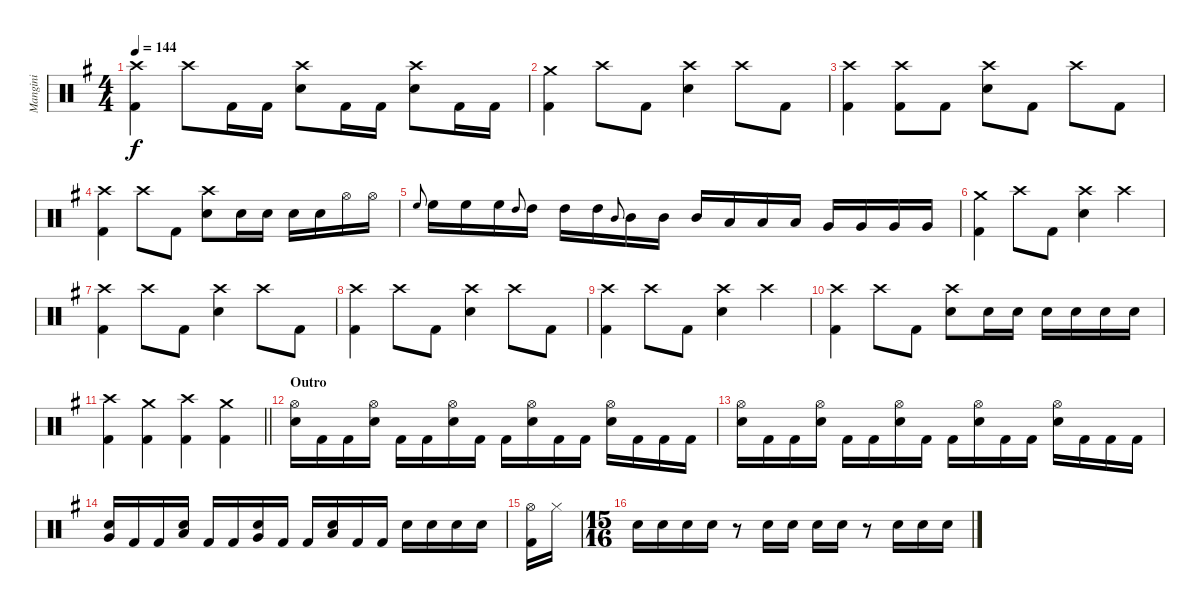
\track ("Mangini" "Mangini") {instrument percussion}
\staff {score}
\articulation defaults
\ts (4 4)
\tempo 144
\clef neutral
\ks eminor
("Crash high (hit)" "Kick (hit) 2").4{dy f} "Crash high (hit)".8 "Kick (hit) 2".16 "Kick (hit) 2".16 ("Crash high (hit)" "Snare (hit) 2").8 "Kick (hit) 2".16 "Kick (hit) 2".16 ("Crash high (hit)" "Snare (hit) 2").8 "Kick (hit) 2".16 "Kick (hit) 2".16 |
("Crash medium (hit)" "Kick (hit) 2").4 "Crash high (hit)".8 "Kick (hit) 2".8 ("Crash high (hit)" "Snare (hit) 2").4 "Crash high (hit)".8 "Kick (hit) 2".8 |
("Crash high (hit)" "Kick (hit) 2").4 ("Crash high (hit)" "Kick (hit) 2").8 "Kick (hit) 2".8 ("Crash high (hit)" "Snare (hit) 2").8 "Kick (hit) 2".8 "Crash high (hit)".8 "Kick (hit) 2".8 |
("Crash high (hit)" "Kick (hit) 2").4 "Crash high (hit)".8 "Kick (hit) 2".8 ("Crash high (hit)" "Snare (hit) 2").8 "Snare (hit) 2".16 "Snare (hit) 2".16 "Snare (hit) 2".16 "Snare (hit) 2".16 "Hi-Hat (open)".16 "Hi-Hat (open)".16 |
"High Floor Tom (hit)".8{gr onbeat} "High Floor Tom (hit)".16 "High Floor Tom (hit)".16 "High Floor Tom (hit)".16 "High Tom (hit)".8{gr onbeat} "High Tom (hit)".16 "High Tom (hit)".16 "High Tom (hit)".16 "Mid Tom (hit)".8{gr onbeat} "Mid Tom (hit)".16 "Mid Tom (hit)".16 "Mid Tom (hit)".16 "Low Tom (hit)".16 "Low Tom (hit)".16 "Low Tom (hit)".16 "Very Low Tom (hit)".16 "Very Low Tom (hit)".16 "Very Low Tom (hit)".16 "Very Low Tom (hit)".16 |
("Crash medium (hit)" "Kick (hit) 2").4 "Crash high (hit)".8 "Kick (hit) 2".8 ("Crash high (hit)" "Snare (hit) 2").4 "Crash high (hit)".4 |
("Crash high (hit)" "Kick (hit) 2").4 "Crash high (hit)".8 "Kick (hit) 2".8 ("Crash high (hit)" "Snare (hit) 2").4 "Crash high (hit)".8 "Kick (hit) 2".8 |
("Crash high (hit)" "Kick (hit) 2").4 "Crash high (hit)".8 "Kick (hit) 2".8 ("Crash high (hit)" "Snare (hit) 2").4 "Crash high (hit)".8 "Kick (hit) 2".8 |
("Crash high (hit)" "Kick (hit) 2").4 "Crash high (hit)".8 "Kick (hit) 2".8 ("Crash high (hit)" "Snare (hit) 2").4 "Crash high (hit)".4 |
("Crash high (hit)" "Kick (hit) 2").4 "Crash high (hit)".8 "Kick (hit) 2".8 ("Crash high (hit)" "Snare (hit) 2").8 "Snare (hit) 2".16 "Snare (hit) 2".16 "Snare (hit) 2".16 "Snare (hit) 2".16 "Snare (hit) 2".16 "Snare (hit) 2".16 |
\barLineRight lightlight
("Crash high (hit)" "Kick (hit) 2").4 ("Crash medium (hit)" "Kick (hit) 2").4 ("Crash high (hit)" "Kick (hit) 2").4 ("Crash medium (hit)" "Kick (hit) 2").4 |
\section ("" "Outro")
("Hi-Hat (open)" "Snare (hit) 2").16 "Kick (hit) 2".16 "Kick (hit) 2".16 ("Hi-Hat (open)" "Snare (hit) 2").16 "Kick (hit) 2".16 "Kick (hit) 2".16 ("Hi-Hat (open)" "Snare (hit) 2").16 "Kick (hit) 2".16 "Kick (hit) 2".16 ("Hi-Hat (open)" "Snare (hit) 2").16 "Kick (hit) 2".16 "Kick (hit) 2".16 ("Hi-Hat (open)" "Snare (hit) 2").16 "Kick (hit) 2".16 "Kick (hit) 2".16 "Kick (hit) 2".16 |
("Hi-Hat (open)" "Snare (hit) 2").16 "Kick (hit) 2".16 "Kick (hit) 2".16 ("Hi-Hat (open)" "Snare (hit) 2").16 "Kick (hit) 2".16 "Kick (hit) 2".16 ("Hi-Hat (open)" "Snare (hit) 2").16 "Kick (hit) 2".16 "Kick (hit) 2".16 ("Hi-Hat (open)" "Snare (hit) 2").16 "Kick (hit) 2".16 "Kick (hit) 2".16 ("Hi-Hat (open)" "Snare (hit) 2").16 "Kick (hit) 2".16 "Kick (hit) 2".16 "Kick (hit) 2".16 |
("Very Low Tom (hit)" "Snare (hit) 2").16 "Kick (hit) 2".16 "Kick (hit) 2".16 ("Low Tom (hit)" "Snare (hit) 2").16 "Kick (hit) 2".16 "Kick (hit) 2".16 ("Very Low Tom (hit)" "Snare (hit) 2").16 "Kick (hit) 2".16 "Kick (hit) 2".16 ("Low Floor Tom (hit)" "Snare (hit) 2").16 "Kick (hit) 2".16 "Kick (hit) 2".16 "Snare (hit) 2".16 "Snare (hit) 2".16 "Snare (hit) 2".16 "Snare (hit) 2".16 |
("Hi-Hat (open)" "Kick (hit) 2").16 "Hi-Hat (closed)".16 |
\ts (15 16)
"Snare (hit) 2".16 "Snare (hit) 2".16 "Snare (hit) 2".16 "Snare (hit) 2".16 r.8 "Snare (hit) 2".16 "Snare (hit) 2".16 "Snare (hit) 2".16 "Snare (hit) 2".16 r.8 "Snare (hit) 2".16 "Snare (hit) 2".16 "Snare (hit) 2".16
